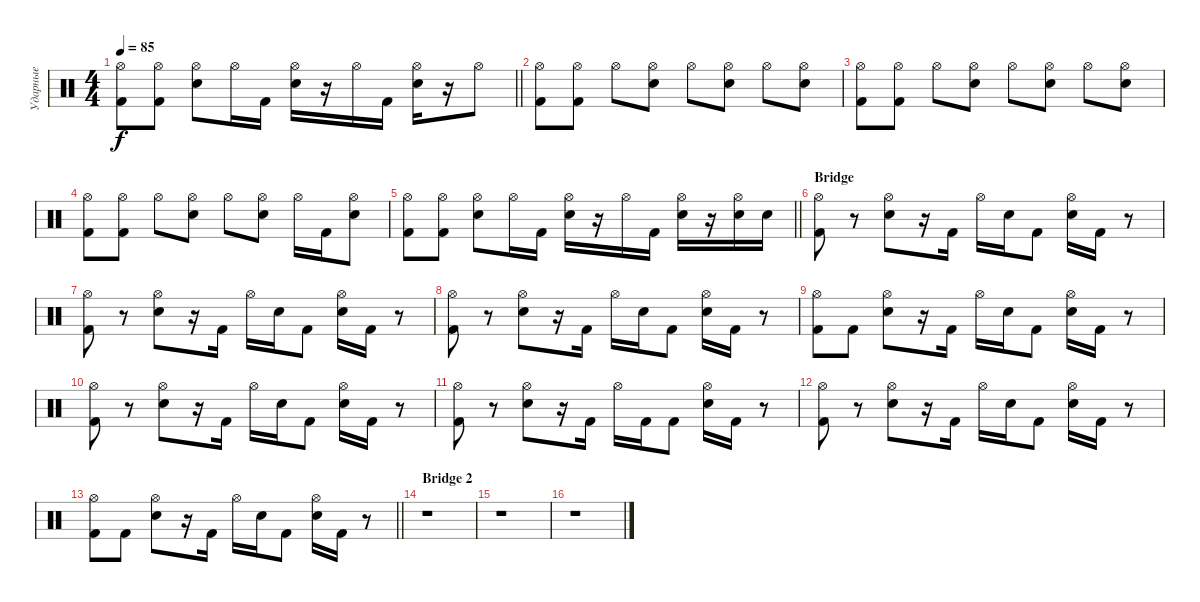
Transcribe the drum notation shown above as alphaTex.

\track ("Ударные" "Ударные") {instrument percussion}
\staff {score}
\articulation defaults
\ts (4 4)
\tempo 85
\clef neutral
\barLineRight lightlight
\ks c
("Hi-Hat (open)" "Kick (hit) 2").8{dy f} ("Hi-Hat (open)" "Kick (hit) 2").8 ("Hi-Hat (open)" "Electric Snare (hit)").8 "Hi-Hat (open)".16 "Kick (hit) 2".16 ("Hi-Hat (open)" "Electric Snare (hit)").16 r.16 "Hi-Hat (open)".16 "Kick (hit) 2".16 ("Hi-Hat (open)" "Electric Snare (hit)").16 r.16 "Hi-Hat (open)".8 |
("Hi-Hat (open)" "Kick (hit) 2").8 ("Hi-Hat (open)" "Kick (hit) 2").8 "Hi-Hat (open)".8 ("Hi-Hat (open)" "Electric Snare (hit)").8 "Hi-Hat (open)".8 ("Hi-Hat (open)" "Electric Snare (hit)").8 "Hi-Hat (open)".8 ("Hi-Hat (open)" "Electric Snare (hit)").8 |
("Hi-Hat (open)" "Kick (hit) 2").8 ("Hi-Hat (open)" "Kick (hit) 2").8 "Hi-Hat (open)".8 ("Hi-Hat (open)" "Electric Snare (hit)").8 "Hi-Hat (open)".8 ("Hi-Hat (open)" "Electric Snare (hit)").8 "Hi-Hat (open)".8 ("Hi-Hat (open)" "Electric Snare (hit)").8 |
("Hi-Hat (open)" "Kick (hit) 2").8 ("Hi-Hat (open)" "Kick (hit) 2").8 "Hi-Hat (open)".8 ("Hi-Hat (open)" "Electric Snare (hit)").8 "Hi-Hat (open)".8 ("Hi-Hat (open)" "Electric Snare (hit)").8 "Hi-Hat (open)".16 "Kick (hit) 2".16 ("Hi-Hat (open)" "Electric Snare (hit)").8 |
\barLineRight lightlight
("Hi-Hat (open)" "Kick (hit) 2").8 ("Hi-Hat (open)" "Kick (hit) 2").8 ("Hi-Hat (open)" "Electric Snare (hit)").8 "Hi-Hat (open)".16 "Kick (hit) 2".16 ("Hi-Hat (open)" "Electric Snare (hit)").16 r.16 "Hi-Hat (open)".16 "Kick (hit) 2".16 ("Hi-Hat (open)" "Electric Snare (hit)").16 r.16 ("Hi-Hat (open)" "Electric Snare (hit)").16 "Electric Snare (hit)".16 |
\section ("" "Bridge")
("Hi-Hat (open)" "Kick (hit) 2").8 r.8 ("Hi-Hat (open)" "Electric Snare (hit)").8 r.16 "Kick (hit) 2".16 "Hi-Hat (open)".16 "Electric Snare (hit)".16 "Kick (hit) 2".8 ("Hi-Hat (open)" "Electric Snare (hit)").16 "Kick (hit) 2".16 r.8 |
("Hi-Hat (open)" "Kick (hit) 2").8 r.8 ("Hi-Hat (open)" "Electric Snare (hit)").8 r.16 "Kick (hit) 2".16 "Hi-Hat (open)".16 "Electric Snare (hit)".16 "Kick (hit) 2".8 ("Hi-Hat (open)" "Electric Snare (hit)").16 "Kick (hit) 2".16 r.8 |
("Hi-Hat (open)" "Kick (hit) 2").8 r.8 ("Hi-Hat (open)" "Electric Snare (hit)").8 r.16 "Kick (hit) 2".16 "Hi-Hat (open)".16 "Electric Snare (hit)".16 "Kick (hit) 2".8 ("Hi-Hat (open)" "Electric Snare (hit)").16 "Kick (hit) 2".16 r.8 |
("Hi-Hat (open)" "Kick (hit) 2").8 "Kick (hit) 2".8 ("Hi-Hat (open)" "Electric Snare (hit)").8 r.16 "Kick (hit) 2".16 "Hi-Hat (open)".16 "Electric Snare (hit)".16 "Kick (hit) 2".8 ("Hi-Hat (open)" "Electric Snare (hit)").16 "Kick (hit) 2".16 r.8 |
("Hi-Hat (open)" "Kick (hit) 2").8 r.8 ("Hi-Hat (open)" "Electric Snare (hit)").8 r.16 "Kick (hit) 2".16 "Hi-Hat (open)".16 "Electric Snare (hit)".16 "Kick (hit) 2".8 ("Hi-Hat (open)" "Electric Snare (hit)").16 "Kick (hit) 2".16 r.8 |
("Hi-Hat (open)" "Kick (hit) 2").8 r.8 ("Hi-Hat (open)" "Electric Snare (hit)").8 r.16 "Kick (hit) 2".16 "Hi-Hat (open)".16 "Kick (hit) 2".16 "Kick (hit) 2".8 ("Hi-Hat (open)" "Electric Snare (hit)").16 "Kick (hit) 2".16 r.8 |
("Hi-Hat (open)" "Kick (hit) 2").8 r.8 ("Hi-Hat (open)" "Electric Snare (hit)").8 r.16 "Kick (hit) 2".16 "Hi-Hat (open)".16 "Electric Snare (hit)".16 "Kick (hit) 2".8 ("Hi-Hat (open)" "Electric Snare (hit)").16 "Kick (hit) 2".16 r.8 |
\barLineRight lightlight
("Hi-Hat (open)" "Kick (hit) 2").8 "Kick (hit) 2".8 ("Hi-Hat (open)" "Electric Snare (hit)").8 r.16 "Kick (hit) 2".16 "Hi-Hat (open)".16 "Electric Snare (hit)".16 "Kick (hit) 2".8 ("Hi-Hat (open)" "Electric Snare (hit)").16 "Kick (hit) 2".16 r.8 |
\section ("" "Bridge 2")
r.1 |
r.1 |
r.1
